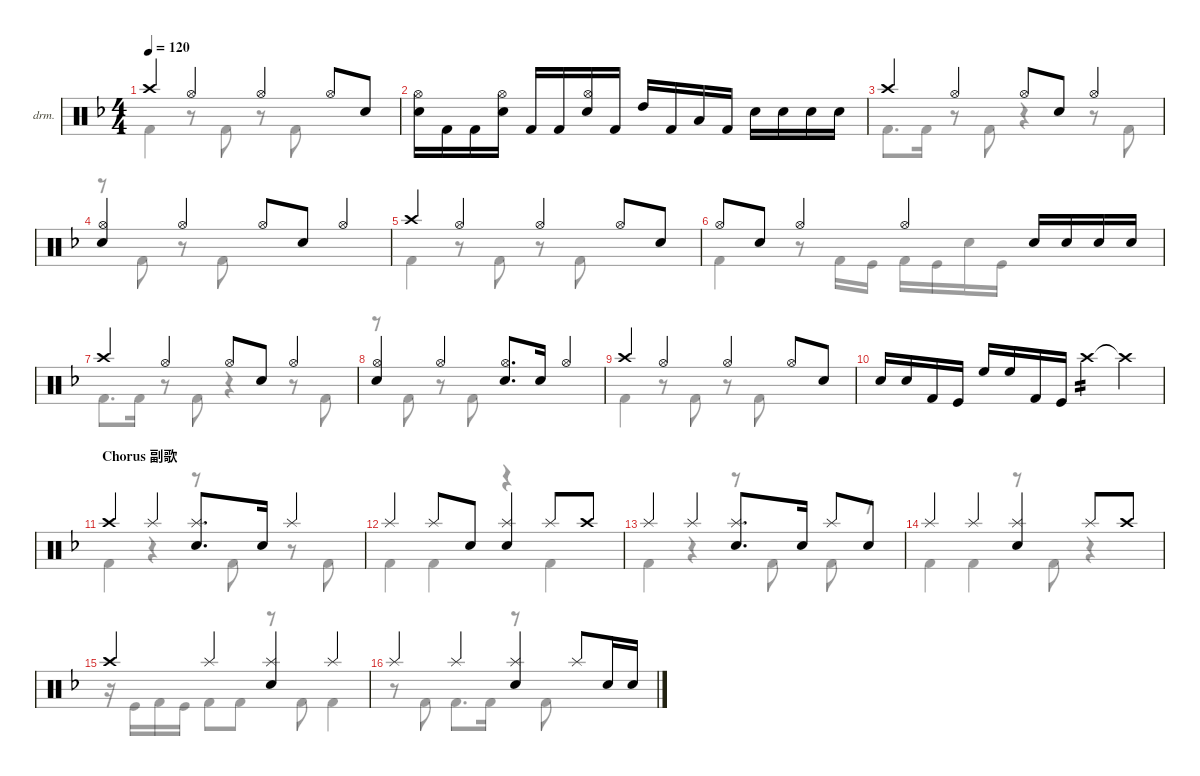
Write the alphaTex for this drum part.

\defaultSystemsLayout 4
\hideDynamics
\bracketExtendMode nobrackets
\firstSystemTrackNameOrientation horizontal
\track ("Drumkit" "drm.") {defaultSystemsLayout 4 instrument percussion}
\staff {score}
\articulation defaults
\voice
\ts (4 4)
\tempo 120
\clef neutral
\ks dminor "Crash high (hit)"{acc forcenatural}.4{dy mf beam Up} "Hi-Hat (open)"{acc forcenatural}.4{beam Up} "Hi-Hat (open)"{acc forcenatural}.4{beam Up} "Hi-Hat (open)"{acc forcenatural}.8{beam Up} "Snare (hit) 2"{acc forcenatural}.8{beam Up}
|
("Hi-Hat (open)"{acc forcenatural} "Snare (hit) 2"{acc forcenatural}).16{beam Down} "Kick (hit) 2"{acc forcenatural}.16{beam Down} "Kick (hit) 2"{acc forcenatural}.16{beam Down} ("Snare (hit) 2"{acc forcenatural} "Hi-Hat (open)"{acc forcenatural}).16{beam Down} "Kick (hit) 2"{acc forcenatural}.16{beam Up} "Kick (hit) 2"{acc forcenatural}.16{beam Up} ("Snare (hit) 2"{acc forcenatural} "Hi-Hat (open)"{acc forcenatural}).16{beam Up} "Kick (hit) 2"{acc forcenatural}.16{beam Up} "High Tom (hit)"{acc forcenatural}.16{beam Up} "Kick (hit) 2"{acc forcenatural}.16{beam Up} "Low Tom (hit)"{acc forcenatural}.16{beam Up} "Kick (hit) 2"{acc forcenatural}.16{beam Up} "Snare (hit) 2"{acc forcenatural}.16{beam Down} "Snare (hit) 2"{acc forcenatural}.16{beam Down} "Snare (hit) 2"{acc forcenatural}.16{beam Down} "Snare (hit) 2"{acc forcenatural}.16{beam Down} |
"Crash high (hit)"{acc forcenatural}.4{beam Up} "Hi-Hat (open)"{acc forcenatural}.4{beam Up} "Hi-Hat (open)"{acc forcenatural}.8{beam Up} "Snare (hit) 2"{acc forcenatural}.8{beam Up} "Hi-Hat (open)"{acc forcenatural}.4{beam Up} |
("Snare (hit) 2"{acc forcenatural} "Hi-Hat (open)"{acc forcenatural}).4{beam Up} "Hi-Hat (open)"{acc forcenatural}.4{beam Up} "Hi-Hat (open)"{acc forcenatural}.8{beam Up} "Snare (hit) 2"{acc forcenatural}.8{beam Up} "Hi-Hat (open)"{acc forcenatural}.4{beam Up} |
"Crash high (hit)"{acc forcenatural}.4{beam Up} "Hi-Hat (open)"{acc forcenatural}.4{beam Up} "Hi-Hat (open)"{acc forcenatural}.4{beam Up} "Hi-Hat (open)"{acc forcenatural}.8{beam Up} "Snare (hit) 2"{acc forcenatural}.8{beam Up} |
"Hi-Hat (open)"{acc forcenatural}.8{beam Up} "Snare (hit) 2"{acc forcenatural}.8{beam Up} "Hi-Hat (open)"{acc forcenatural}.4{beam Up} "Hi-Hat (open)"{acc forcenatural}.4{beam Up} "Snare (hit) 2"{acc forcenatural}.16{beam Up} "Snare (hit) 2"{acc forcenatural}.16{beam Up} "Snare (hit) 2"{acc forcenatural}.16{beam Up} "Snare (hit) 2"{acc forcenatural}.16{beam Up} |
"Crash high (hit)"{acc forcenatural}.4{beam Up} "Hi-Hat (open)"{acc forcenatural}.4{beam Up} "Hi-Hat (open)"{acc forcenatural}.8{beam Up} "Snare (hit) 2"{acc forcenatural}.8{beam Up} "Hi-Hat (open)"{acc forcenatural}.4{beam Up} |
("Snare (hit) 2"{acc forcenatural} "Hi-Hat (open)"{acc forcenatural}).4{beam Up} "Hi-Hat (open)"{acc forcenatural}.4{beam Up} ("Hi-Hat (open)"{acc forcenatural} "Snare (hit) 2"{acc forcenatural}).8{d beam Up} "Snare (hit) 2"{acc forcenatural}.16{beam Up} "Hi-Hat (open)"{acc forcenatural}.4{beam Up} |
"Crash high (hit)"{acc forcenatural}.4{beam Up} "Hi-Hat (open)"{acc forcenatural}.4{beam Up} "Hi-Hat (open)"{acc forcenatural}.4{beam Up} "Hi-Hat (open)"{acc forcenatural}.8{beam Up} "Snare (hit) 2"{acc forcenatural}.8{beam Up} |
"Snare (hit) 2"{acc forcenatural}.16{beam Up} "Snare (hit) 2"{acc forcenatural}.16{beam Up} "Kick (hit) 2"{acc forcenatural}.16{beam Up} "Kick (hit)"{acc forcenatural}.16{beam Up} "High Floor Tom (hit)"{acc forcenatural}.16{beam Up} "High Floor Tom (hit)"{acc forcenatural}.16{beam Up} "Kick (hit) 2"{acc forcenatural}.16{beam Up} "Kick (hit)"{acc forcenatural}.16{beam Up} "Crash high (hit)"{acc forcenatural}.4{tp 2 beam Down} "Crash high (hit)"{t acc forcenatural}.4{beam Down} |
\section ("" "Chorus 副歌")
"Crash high (hit)"{acc forcenatural}.4{beam Up} "Splash (hit)"{acc forcenatural}.4{beam Up} ("Snare (hit) 2"{acc forcenatural} "Splash (hit)"{acc forcenatural}).8{d beam Up} "Snare (hit) 2"{acc forcenatural}.16{beam Up} "Splash (hit)"{acc forcenatural}.4{beam Up} |
"Splash (hit)"{acc forcenatural}.4{beam Up} "Splash (hit)"{acc forcenatural}.8{beam Up} "Snare (hit) 2"{acc forcenatural}.8{beam Up} ("Snare (hit) 2"{acc forcenatural} "Splash (hit)"{acc forcenatural}).4{beam Up} "Splash (hit)"{acc forcenatural}.8{beam Up} "Crash high (hit)"{acc forcenatural}.8{beam Up} |
"Splash (hit)"{acc forcenatural}.4{beam Up} "Splash (hit)"{acc forcenatural}.4{beam Up} ("Snare (hit) 2"{acc forcenatural} "Splash (hit)"{acc forcenatural}).8{d beam Up} "Snare (hit) 2"{acc forcenatural}.16{beam Up} "Splash (hit)"{acc forcenatural}.8{beam Up} "Snare (hit) 2"{acc forcenatural}.8{beam Up} |
"Splash (hit)"{acc forcenatural}.4{beam Up} "Splash (hit)"{acc forcenatural}.4{beam Up} ("Snare (hit) 2"{acc forcenatural} "Splash (hit)"{acc forcenatural}).4{beam Up} "Splash (hit)"{acc forcenatural}.8{beam Up} "Crash high (hit)"{acc forcenatural}.8{beam Up} |
"Crash high (hit)"{acc forcenatural}.4{beam Up} "Splash (hit)"{acc forcenatural}.4{beam Up} ("Snare (hit) 2"{acc forcenatural} "Splash (hit)"{acc forcenatural}).4{beam Up} "Splash (hit)"{acc forcenatural}.4{beam Up} |
"Splash (hit)"{acc forcenatural}.4{beam Up} "Splash (hit)"{acc forcenatural}.4{beam Up} ("Snare (hit) 2"{acc forcenatural} "Splash (hit)"{acc forcenatural}).4{beam Up} "Splash (hit)"{acc forcenatural}.8{beam Up} "Snare (hit) 2"{acc forcenatural}.16{beam Up} "Snare (hit) 2"{acc forcenatural}.16{beam Up}
\voice
\clef neutral
\ottava regular
\simile none
\ks dminor "Kick (hit) 2"{acc forcenatural}.4{dy mf beam Down}
r.8{beam Down} "Kick (hit) 2"{acc forcenatural}.8{beam Down} r.8{beam Down} "Kick (hit) 2"{acc forcenatural}.8{beam Down} |
|
"Kick (hit) 2"{acc forcenatural}.8{d beam Down} "Kick (hit) 2"{acc forcenatural}.16{beam Down} r.8{beam Down} "Kick (hit) 2"{acc forcenatural}.8{beam Down} r.4{beam Down} r.8{beam Down} "Kick (hit) 2"{acc forcenatural}.8{beam Down} |
r.8{beam Down} "Kick (hit) 2"{acc forcenatural}.8{beam Down} r.8{beam Down} "Kick (hit) 2"{acc forcenatural}.8{beam Down} |
"Kick (hit) 2"{acc forcenatural}.4{beam Down} r.8{beam Down} "Kick (hit) 2"{acc forcenatural}.8{beam Down} r.8{beam Down} "Kick (hit) 2"{acc forcenatural}.8{beam Down} |
"Kick (hit) 2"{acc forcenatural}.4{beam Down} r.8{beam Down} "Kick (hit) 2"{acc forcenatural}.16{beam Down} "Kick (hit)"{acc forcenatural}.16{beam Down} "Kick (hit) 2"{acc forcenatural}.16{beam Down} "Kick (hit)"{acc forcenatural}.16{beam Down} "Snare (hit) 2"{acc forcenatural}.16{beam Down} "Kick (hit)"{acc forcenatural}.16{beam Down} |
"Kick (hit) 2"{acc forcenatural}.8{d beam Down} "Kick (hit) 2"{acc forcenatural}.16{beam Down} r.8{beam Down} "Kick (hit) 2"{acc forcenatural}.8{beam Down} r.4{beam Down} r.8{beam Down} "Kick (hit) 2"{acc forcenatural}.8{beam Down} |
r.8{beam Down} "Kick (hit) 2"{acc forcenatural}.8{beam Down} r.8{beam Down} "Kick (hit) 2"{acc forcenatural}.8{beam Down} |
"Kick (hit) 2"{acc forcenatural}.4{beam Down} r.8{beam Down} "Kick (hit) 2"{acc forcenatural}.8{beam Down} r.8{beam Down} "Kick (hit) 2"{acc forcenatural}.8{beam Down} |
|
"Kick (hit) 2"{acc forcenatural}.4{beam Down} r.4{beam Down} r.8{beam Down} "Kick (hit) 2"{acc forcenatural}.8{beam Down} r.8{beam Down} "Kick (hit) 2"{acc forcenatural}.8{beam Down} |
"Kick (hit) 2"{acc forcenatural}.4{beam Down} "Kick (hit) 2"{acc forcenatural}.4{beam Down} r.4{beam Down} "Kick (hit) 2"{acc forcenatural}.4{beam Down} |
"Kick (hit) 2"{acc forcenatural}.4{beam Down} r.4{beam Down} r.8{beam Down} "Kick (hit) 2"{acc forcenatural}.8{beam Down} "Kick (hit) 2"{acc forcenatural}.8{beam Down} r.8{beam Down} |
"Kick (hit) 2"{acc forcenatural}.4{beam Down} "Kick (hit) 2"{acc forcenatural}.4{beam Down} r.8{beam Down} "Kick (hit) 2"{acc forcenatural}.8{beam Down} r.4{beam Down} |
r.16{beam Down} "Kick (hit)"{acc forcenatural}.16{beam Down} "Kick (hit) 2"{acc forcenatural}.16{beam Down} "Kick (hit)"{acc forcenatural}.16{beam Down} "Kick (hit) 2"{acc forcenatural}.8{beam Down} "Kick (hit) 2"{acc forcenatural}.8{beam Down} r.8{beam Down} "Kick (hit) 2"{acc forcenatural}.8{beam Down} "Kick (hit) 2"{acc forcenatural}.4{beam Down} |
r.8{beam Down} "Kick (hit) 2"{acc forcenatural}.8{beam Down} "Kick (hit) 2"{acc forcenatural}.8{d beam Down} "Kick (hit) 2"{acc forcenatural}.16{beam Down} r.8{beam Down} "Kick (hit) 2"{acc forcenatural}.8{beam Down}
